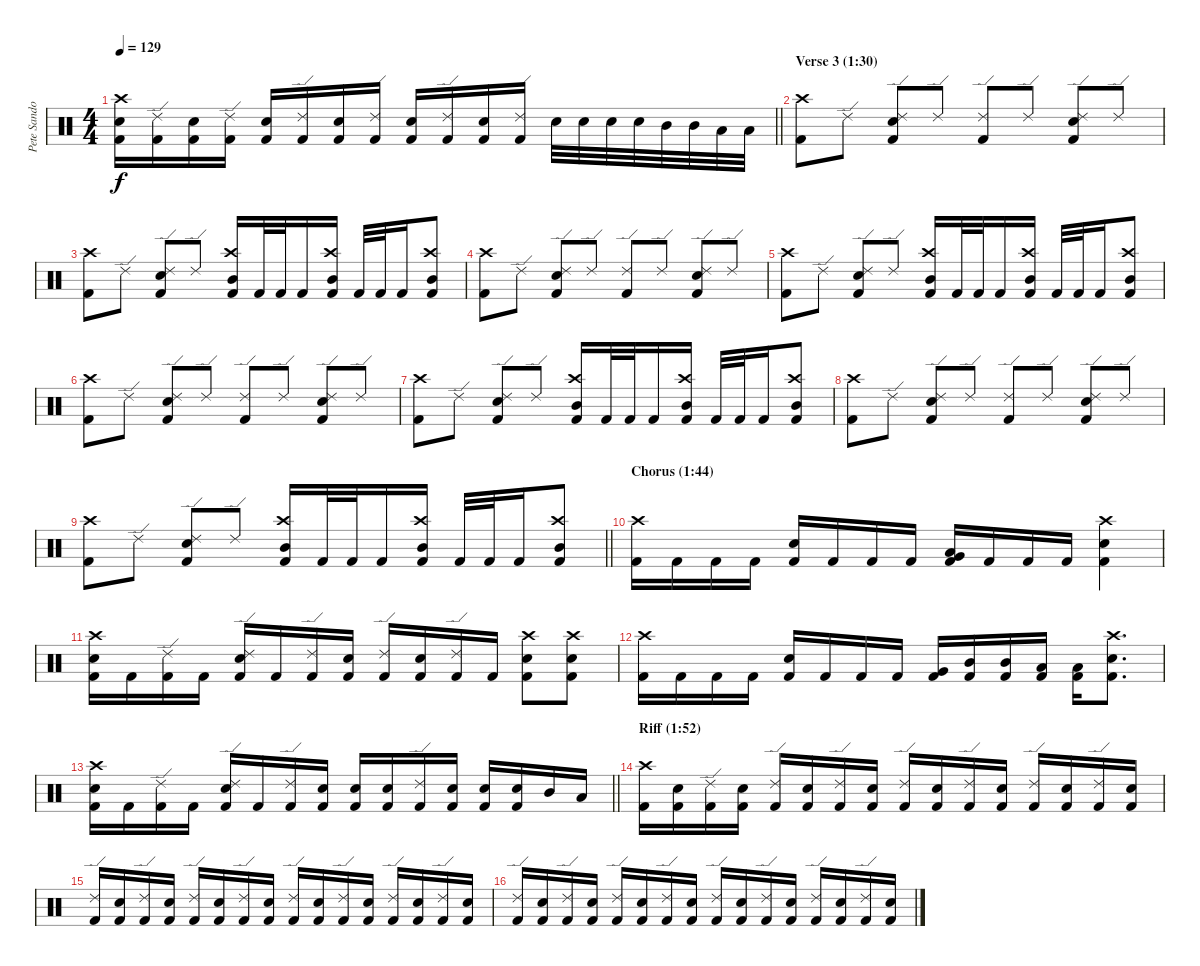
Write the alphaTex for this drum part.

\track ("Pete Sandoval " "Pete Sando") {instrument percussion}
\staff {score}
\articulation defaults
\ts (4 4)
\tempo 129
\clef neutral
\barLineRight lightlight
\ks c
("Kick (hit) 2" "Snare (hit) 2" "Crash high (hit)").16{dy f} ("Kick (hit) 2" "Ride (edge) 2").16 ("Kick (hit) 2" "Snare (hit) 2").16 ("Kick (hit) 2" "Ride (edge) 2").16 ("Kick (hit) 2" "Snare (hit) 2").16 ("Kick (hit) 2" "Ride (edge) 2").16 ("Kick (hit) 2" "Snare (hit) 2").16 ("Kick (hit) 2" "Ride (edge) 2").16 ("Kick (hit) 2" "Snare (hit) 2").16 ("Kick (hit) 2" "Ride (edge) 2").16 ("Kick (hit) 2" "Snare (hit) 2").16 ("Kick (hit) 2" "Ride (edge) 2").16 "Snare (hit) 2".32 "Snare (hit) 2".32 "Snare (hit) 2".32 "Snare (hit) 2".32 "Mid Tom (hit)".32 "Mid Tom (hit)".32 "Low Tom (hit)".32 "Low Tom (hit)".32 |
\section ("" "Verse 3 (1:30)")
("Kick (hit) 2" "Crash high (hit)").8 "Ride (edge) 2".8 ("Kick (hit) 2" "Snare (hit) 2" "Ride (edge) 2").8 "Ride (edge) 2".8 ("Kick (hit) 2" "Ride (edge) 2").8 "Ride (edge) 2".8 ("Kick (hit) 2" "Snare (hit) 2" "Ride (edge) 2").8 "Ride (edge) 2".8 |
("Kick (hit) 2" "Crash high (hit)").8 "Ride (edge) 2".8 ("Kick (hit) 2" "Snare (hit) 2" "Ride (edge) 2").8 "Ride (edge) 2".8 ("Kick (hit) 2" "Mid Tom (hit)" "Crash high (hit)").16 "Kick (hit) 2".32 "Kick (hit) 2".32 "Kick (hit) 2".16 ("Kick (hit) 2" "Mid Tom (hit)" "Crash high (hit)").16 "Kick (hit) 2".32 "Kick (hit) 2".32 "Kick (hit) 2".16 ("Kick (hit) 2" "Mid Tom (hit)" "Crash high (hit)").8 |
("Kick (hit) 2" "Crash high (hit)").8 "Ride (edge) 2".8 ("Kick (hit) 2" "Snare (hit) 2" "Ride (edge) 2").8 "Ride (edge) 2".8 ("Kick (hit) 2" "Ride (edge) 2").8 "Ride (edge) 2".8 ("Kick (hit) 2" "Snare (hit) 2" "Ride (edge) 2").8 "Ride (edge) 2".8 |
("Kick (hit) 2" "Crash high (hit)").8 "Ride (edge) 2".8 ("Kick (hit) 2" "Snare (hit) 2" "Ride (edge) 2").8 "Ride (edge) 2".8 ("Kick (hit) 2" "Mid Tom (hit)" "Crash high (hit)").16 "Kick (hit) 2".32 "Kick (hit) 2".32 "Kick (hit) 2".16 ("Kick (hit) 2" "Mid Tom (hit)" "Crash high (hit)").16 "Kick (hit) 2".32 "Kick (hit) 2".32 "Kick (hit) 2".16 ("Kick (hit) 2" "Mid Tom (hit)" "Crash high (hit)").8 |
("Kick (hit) 2" "Crash high (hit)").8 "Ride (edge) 2".8 ("Kick (hit) 2" "Snare (hit) 2" "Ride (edge) 2").8 "Ride (edge) 2".8 ("Kick (hit) 2" "Ride (edge) 2").8 "Ride (edge) 2".8 ("Kick (hit) 2" "Snare (hit) 2" "Ride (edge) 2").8 "Ride (edge) 2".8 |
("Kick (hit) 2" "Crash high (hit)").8 "Ride (edge) 2".8 ("Kick (hit) 2" "Snare (hit) 2" "Ride (edge) 2").8 "Ride (edge) 2".8 ("Kick (hit) 2" "Mid Tom (hit)" "Crash high (hit)").16 "Kick (hit) 2".32 "Kick (hit) 2".32 "Kick (hit) 2".16 ("Kick (hit) 2" "Mid Tom (hit)" "Crash high (hit)").16 "Kick (hit) 2".32 "Kick (hit) 2".32 "Kick (hit) 2".16 ("Kick (hit) 2" "Mid Tom (hit)" "Crash high (hit)").8 |
("Kick (hit) 2" "Crash high (hit)").8 "Ride (edge) 2".8 ("Kick (hit) 2" "Snare (hit) 2" "Ride (edge) 2").8 "Ride (edge) 2".8 ("Kick (hit) 2" "Ride (edge) 2").8 "Ride (edge) 2".8 ("Kick (hit) 2" "Snare (hit) 2" "Ride (edge) 2").8 "Ride (edge) 2".8 |
\barLineRight lightlight
("Kick (hit) 2" "Crash high (hit)").8 "Ride (edge) 2".8 ("Kick (hit) 2" "Snare (hit) 2" "Ride (edge) 2").8 "Ride (edge) 2".8 ("Kick (hit) 2" "Mid Tom (hit)" "Crash high (hit)").16 "Kick (hit) 2".32 "Kick (hit) 2".32 "Kick (hit) 2".16 ("Kick (hit) 2" "Mid Tom (hit)" "Crash high (hit)").16 "Kick (hit) 2".32 "Kick (hit) 2".32 "Kick (hit) 2".16 ("Kick (hit) 2" "Mid Tom (hit)" "Crash high (hit)").8 |
\section ("" "Chorus (1:44)")
("Kick (hit) 2" "Crash high (hit)").16 "Kick (hit) 2".16 "Kick (hit) 2".16 "Kick (hit) 2".16 ("Kick (hit) 2" "Snare (hit) 2").16 "Kick (hit) 2".16 "Kick (hit) 2".16 "Kick (hit) 2".16 ("Kick (hit) 2" "Very Low Tom (hit)" "Low Floor Tom (hit)").16 "Kick (hit) 2".16 "Kick (hit) 2".16 "Kick (hit) 2".16 ("Kick (hit) 2" "Snare (hit) 2" "Crash high (hit)").4 |
("Kick (hit) 2" "Snare (hit) 2" "Crash high (hit)").16 "Kick (hit) 2".16 ("Kick (hit) 2" "Ride (edge) 2").16 "Kick (hit) 2".16 ("Kick (hit) 2" "Snare (hit) 2" "Ride (edge) 2").16 "Kick (hit) 2".16 ("Kick (hit) 2" "Ride (edge) 2").16 ("Kick (hit) 2" "Snare (hit) 2").16 ("Kick (hit) 2" "Ride (edge) 2").16 ("Kick (hit) 2" "Snare (hit) 2").16 ("Kick (hit) 2" "Ride (edge) 2").16 "Kick (hit) 2".16 ("Kick (hit) 2" "Snare (hit) 2" "Crash high (hit)").8 ("Kick (hit) 2" "Snare (hit) 2" "Crash high (hit)").8 |
("Kick (hit) 2" "Crash high (hit)").16 "Kick (hit) 2".16 "Kick (hit) 2".16 "Kick (hit) 2".16 ("Kick (hit) 2" "Snare (hit) 2").16 "Kick (hit) 2".16 "Kick (hit) 2".16 "Kick (hit) 2".16 ("Kick (hit) 2" "Very Low Tom (hit)").16 ("Kick (hit) 2" "Mid Tom (hit)").16 ("Kick (hit) 2" "Mid Tom (hit)").16 ("Kick (hit) 2" "Low Tom (hit)").16 ("Kick (hit) 2" "Low Tom (hit)").16 ("Kick (hit) 2" "Snare (hit) 2" "Crash high (hit)").8{d} |
\barLineRight lightlight
("Kick (hit) 2" "Snare (hit) 2" "Crash high (hit)").16 "Kick (hit) 2".16 ("Kick (hit) 2" "Ride (edge) 2").16 "Kick (hit) 2".16 ("Kick (hit) 2" "Snare (hit) 2" "Ride (edge) 2").16 "Kick (hit) 2".16 ("Kick (hit) 2" "Ride (edge) 2").16 ("Kick (hit) 2" "Snare (hit) 2").16 ("Kick (hit) 2" "Snare (hit) 2").16 ("Kick (hit) 2" "Snare (hit) 2").16 ("Kick (hit) 2" "Ride (edge) 2").16 ("Kick (hit) 2" "Snare (hit) 2").16 ("Kick (hit) 2" "Snare (hit) 2").16 ("Kick (hit) 2" "Snare (hit) 2").16 "Mid Tom (hit)".16 "Low Tom (hit)".16 |
\section ("" "Riff (1:52)")
("Kick (hit) 2" "Crash high (hit)").16 ("Kick (hit) 2" "Snare (hit) 2").16 ("Kick (hit) 2" "Ride (edge) 2").16 ("Kick (hit) 2" "Snare (hit) 2").16 ("Kick (hit) 2" "Ride (edge) 2").16 ("Kick (hit) 2" "Snare (hit) 2").16 ("Kick (hit) 2" "Ride (edge) 2").16 ("Kick (hit) 2" "Snare (hit) 2").16 ("Kick (hit) 2" "Ride (edge) 2").16 ("Kick (hit) 2" "Snare (hit) 2").16 ("Kick (hit) 2" "Ride (edge) 2").16 ("Kick (hit) 2" "Snare (hit) 2").16 ("Kick (hit) 2" "Ride (edge) 2").16 ("Kick (hit) 2" "Snare (hit) 2").16 ("Kick (hit) 2" "Ride (edge) 2").16 ("Kick (hit) 2" "Snare (hit) 2").16 |
("Kick (hit) 2" "Ride (edge) 2").16 ("Kick (hit) 2" "Snare (hit) 2").16 ("Kick (hit) 2" "Ride (edge) 2").16 ("Kick (hit) 2" "Snare (hit) 2").16 ("Kick (hit) 2" "Ride (edge) 2").16 ("Kick (hit) 2" "Snare (hit) 2").16 ("Kick (hit) 2" "Ride (edge) 2").16 ("Kick (hit) 2" "Snare (hit) 2").16 ("Kick (hit) 2" "Ride (edge) 2").16 ("Kick (hit) 2" "Snare (hit) 2").16 ("Kick (hit) 2" "Ride (edge) 2").16 ("Kick (hit) 2" "Snare (hit) 2").16 ("Kick (hit) 2" "Ride (edge) 2").16 ("Kick (hit) 2" "Snare (hit) 2").16 ("Kick (hit) 2" "Ride (edge) 2").16 ("Kick (hit) 2" "Snare (hit) 2").16 |
("Kick (hit) 2" "Ride (edge) 2").16 ("Kick (hit) 2" "Snare (hit) 2").16 ("Kick (hit) 2" "Ride (edge) 2").16 ("Kick (hit) 2" "Snare (hit) 2").16 ("Kick (hit) 2" "Ride (edge) 2").16 ("Kick (hit) 2" "Snare (hit) 2").16 ("Kick (hit) 2" "Ride (edge) 2").16 ("Kick (hit) 2" "Snare (hit) 2").16 ("Kick (hit) 2" "Ride (edge) 2").16 ("Kick (hit) 2" "Snare (hit) 2").16 ("Kick (hit) 2" "Ride (edge) 2").16 ("Kick (hit) 2" "Snare (hit) 2").16 ("Kick (hit) 2" "Ride (edge) 2").16 ("Kick (hit) 2" "Snare (hit) 2").16 ("Kick (hit) 2" "Ride (edge) 2").16 ("Kick (hit) 2" "Snare (hit) 2").16
